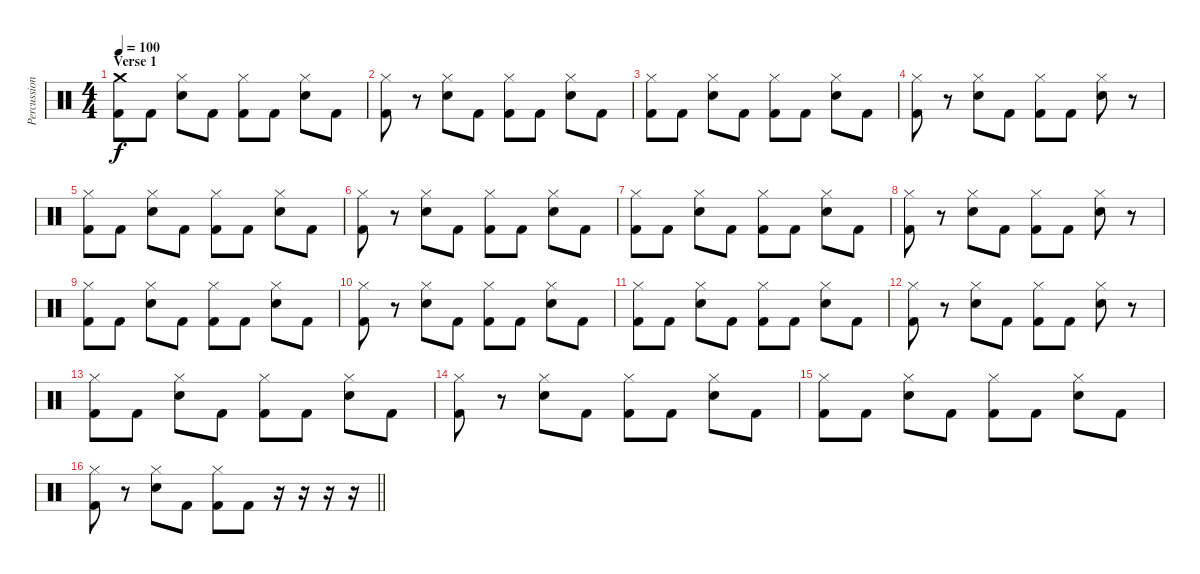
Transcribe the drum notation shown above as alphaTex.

\track ("Percussion" "Percussion") {instrument percussion}
\staff {score}
\articulation defaults
\ts (4 4)
\section ("" "Verse 1")
\tempo 100
\clef neutral
\ks c
("Crash medium (hit)" "Kick (hit) 2").8{dy f} "Kick (hit) 2".8 ("Hi-Hat (closed)" "Snare (hit) 2").8 "Kick (hit) 2".8 ("Hi-Hat (closed)" "Kick (hit) 2").8 "Kick (hit) 2".8 ("Hi-Hat (closed)" "Snare (hit) 2").8 "Kick (hit) 2".8 |
("Hi-Hat (closed)" "Kick (hit) 2").8 r.8 ("Hi-Hat (closed)" "Snare (hit) 2").8 "Kick (hit) 2".8 ("Hi-Hat (closed)" "Kick (hit) 2").8 "Kick (hit) 2".8 ("Hi-Hat (closed)" "Snare (hit) 2").8 "Kick (hit) 2".8 |
("Hi-Hat (closed)" "Kick (hit) 2").8 "Kick (hit) 2".8 ("Hi-Hat (closed)" "Snare (hit) 2").8 "Kick (hit) 2".8 ("Hi-Hat (closed)" "Kick (hit) 2").8 "Kick (hit) 2".8 ("Hi-Hat (closed)" "Snare (hit) 2").8 "Kick (hit) 2".8 |
("Hi-Hat (closed)" "Kick (hit) 2").8 r.8 ("Hi-Hat (closed)" "Snare (hit) 2").8 "Kick (hit) 2".8 ("Hi-Hat (closed)" "Kick (hit) 2").8 "Kick (hit) 2".8 ("Hi-Hat (closed)" "Snare (hit) 2").8 r.8 |
("Hi-Hat (closed)" "Kick (hit) 2").8 "Kick (hit) 2".8 ("Hi-Hat (closed)" "Snare (hit) 2").8 "Kick (hit) 2".8 ("Hi-Hat (closed)" "Kick (hit) 2").8 "Kick (hit) 2".8 ("Hi-Hat (closed)" "Snare (hit) 2").8 "Kick (hit) 2".8 |
("Hi-Hat (closed)" "Kick (hit) 2").8 r.8 ("Hi-Hat (closed)" "Snare (hit) 2").8 "Kick (hit) 2".8 ("Hi-Hat (closed)" "Kick (hit) 2").8 "Kick (hit) 2".8 ("Hi-Hat (closed)" "Snare (hit) 2").8 "Kick (hit) 2".8 |
("Hi-Hat (closed)" "Kick (hit) 2").8 "Kick (hit) 2".8 ("Hi-Hat (closed)" "Snare (hit) 2").8 "Kick (hit) 2".8 ("Hi-Hat (closed)" "Kick (hit) 2").8 "Kick (hit) 2".8 ("Hi-Hat (closed)" "Snare (hit) 2").8 "Kick (hit) 2".8 |
("Hi-Hat (closed)" "Kick (hit) 2").8 r.8 ("Hi-Hat (closed)" "Snare (hit) 2").8 "Kick (hit) 2".8 ("Hi-Hat (closed)" "Kick (hit) 2").8 "Kick (hit) 2".8 ("Hi-Hat (closed)" "Snare (hit) 2").8 r.8 |
("Hi-Hat (closed)" "Kick (hit) 2").8 "Kick (hit) 2".8 ("Hi-Hat (closed)" "Snare (hit) 2").8 "Kick (hit) 2".8 ("Hi-Hat (closed)" "Kick (hit) 2").8 "Kick (hit) 2".8 ("Hi-Hat (closed)" "Snare (hit) 2").8 "Kick (hit) 2".8 |
("Hi-Hat (closed)" "Kick (hit) 2").8 r.8 ("Hi-Hat (closed)" "Snare (hit) 2").8 "Kick (hit) 2".8 ("Hi-Hat (closed)" "Kick (hit) 2").8 "Kick (hit) 2".8 ("Hi-Hat (closed)" "Snare (hit) 2").8 "Kick (hit) 2".8 |
("Hi-Hat (closed)" "Kick (hit) 2").8 "Kick (hit) 2".8 ("Hi-Hat (closed)" "Snare (hit) 2").8 "Kick (hit) 2".8 ("Hi-Hat (closed)" "Kick (hit) 2").8 "Kick (hit) 2".8 ("Hi-Hat (closed)" "Snare (hit) 2").8 "Kick (hit) 2".8 |
("Hi-Hat (closed)" "Kick (hit) 2").8 r.8 ("Hi-Hat (closed)" "Snare (hit) 2").8 "Kick (hit) 2".8 ("Hi-Hat (closed)" "Kick (hit) 2").8 "Kick (hit) 2".8 ("Hi-Hat (closed)" "Snare (hit) 2").8 r.8 |
("Hi-Hat (closed)" "Kick (hit) 2").8 "Kick (hit) 2".8 ("Hi-Hat (closed)" "Snare (hit) 2").8 "Kick (hit) 2".8 ("Hi-Hat (closed)" "Kick (hit) 2").8 "Kick (hit) 2".8 ("Hi-Hat (closed)" "Snare (hit) 2").8 "Kick (hit) 2".8 |
("Hi-Hat (closed)" "Kick (hit) 2").8 r.8 ("Hi-Hat (closed)" "Snare (hit) 2").8 "Kick (hit) 2".8 ("Hi-Hat (closed)" "Kick (hit) 2").8 "Kick (hit) 2".8 ("Hi-Hat (closed)" "Snare (hit) 2").8 "Kick (hit) 2".8 |
("Hi-Hat (closed)" "Kick (hit) 2").8 "Kick (hit) 2".8 ("Hi-Hat (closed)" "Snare (hit) 2").8 "Kick (hit) 2".8 ("Hi-Hat (closed)" "Kick (hit) 2").8 "Kick (hit) 2".8 ("Hi-Hat (closed)" "Snare (hit) 2").8 "Kick (hit) 2".8 |
\barLineRight lightlight
("Hi-Hat (closed)" "Kick (hit) 2").8 r.8 ("Hi-Hat (closed)" "Snare (hit) 2").8 "Kick (hit) 2".8 ("Hi-Hat (closed)" "Kick (hit) 2").8 "Kick (hit) 2".8 r.16 r.16 r.16 r.16
